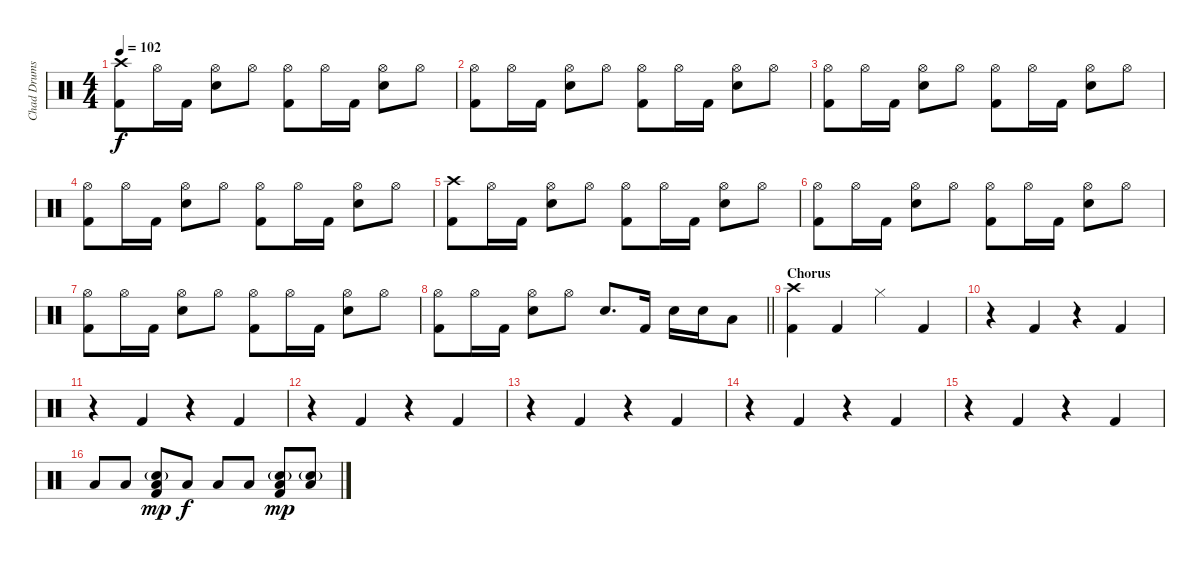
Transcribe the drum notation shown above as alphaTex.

\track ("Chad Drums)" "Chad Drums") {instrument percussion}
\staff {score}
\articulation defaults
\ts (4 4)
\tempo 102
\clef neutral
\ks c
("Crash high (hit)" "Kick (hit) 2").8{dy f} "Hi-Hat (open)".16 "Kick (hit) 2".16 ("Hi-Hat (open)" "Snare (hit) 2").8 "Hi-Hat (open)".8 ("Hi-Hat (open)" "Kick (hit) 2").8 "Hi-Hat (open)".16 "Kick (hit) 2".16 ("Hi-Hat (open)" "Snare (hit) 2").8 "Hi-Hat (open)".8 |
("Hi-Hat (open)" "Kick (hit) 2").8 "Hi-Hat (open)".16 "Kick (hit) 2".16 ("Hi-Hat (open)" "Snare (hit) 2").8 "Hi-Hat (open)".8 ("Hi-Hat (open)" "Kick (hit) 2").8 "Hi-Hat (open)".16 "Kick (hit) 2".16 ("Hi-Hat (open)" "Snare (hit) 2").8 "Hi-Hat (open)".8 |
("Hi-Hat (open)" "Kick (hit) 2").8 "Hi-Hat (open)".16 "Kick (hit) 2".16 ("Hi-Hat (open)" "Snare (hit) 2").8 "Hi-Hat (open)".8 ("Hi-Hat (open)" "Kick (hit) 2").8 "Hi-Hat (open)".16 "Kick (hit) 2".16 ("Hi-Hat (open)" "Snare (hit) 2").8 "Hi-Hat (open)".8 |
("Hi-Hat (open)" "Kick (hit) 2").8 "Hi-Hat (open)".16 "Kick (hit) 2".16 ("Hi-Hat (open)" "Snare (hit) 2").8 "Hi-Hat (open)".8 ("Hi-Hat (open)" "Kick (hit) 2").8 "Hi-Hat (open)".16 "Kick (hit) 2".16 ("Hi-Hat (open)" "Snare (hit) 2").8 "Hi-Hat (open)".8 |
("Crash high (hit)" "Kick (hit) 2").8 "Hi-Hat (open)".16 "Kick (hit) 2".16 ("Hi-Hat (open)" "Snare (hit) 2").8 "Hi-Hat (open)".8 ("Hi-Hat (open)" "Kick (hit) 2").8 "Hi-Hat (open)".16 "Kick (hit) 2".16 ("Hi-Hat (open)" "Snare (hit) 2").8 "Hi-Hat (open)".8 |
("Hi-Hat (open)" "Kick (hit) 2").8 "Hi-Hat (open)".16 "Kick (hit) 2".16 ("Hi-Hat (open)" "Snare (hit) 2").8 "Hi-Hat (open)".8 ("Hi-Hat (open)" "Kick (hit) 2").8 "Hi-Hat (open)".16 "Kick (hit) 2".16 ("Hi-Hat (open)" "Snare (hit) 2").8 "Hi-Hat (open)".8 |
("Hi-Hat (open)" "Kick (hit) 2").8 "Hi-Hat (open)".16 "Kick (hit) 2".16 ("Hi-Hat (open)" "Snare (hit) 2").8 "Hi-Hat (open)".8 ("Hi-Hat (open)" "Kick (hit) 2").8 "Hi-Hat (open)".16 "Kick (hit) 2".16 ("Hi-Hat (open)" "Snare (hit) 2").8 "Hi-Hat (open)".8 |
\barLineRight lightlight
("Hi-Hat (open)" "Kick (hit) 2").8 "Hi-Hat (open)".16 "Kick (hit) 2".16 ("Hi-Hat (open)" "Snare (hit) 2").8 "Hi-Hat (open)".8 "Snare (hit) 2".8{d} "Kick (hit) 2".16 "Snare (hit) 2".16 "Snare (hit) 2".16 "Low Tom (hit)".8 |
\section ("" "Chorus")
("Crash high (hit)" "Kick (hit) 2").4 "Kick (hit) 2".4 "Hi-Hat (closed)".4 "Kick (hit) 2".4 |
r.4 "Kick (hit) 2".4 r.4 "Kick (hit) 2".4 |
r.4 "Kick (hit) 2".4 r.4 "Kick (hit) 2".4 |
r.4 "Kick (hit) 2".4 r.4 "Kick (hit) 2".4 |
r.4 "Kick (hit) 2".4 r.4 "Kick (hit) 2".4 |
r.4 "Kick (hit) 2".4 r.4 "Kick (hit) 2".4 |
r.4 "Kick (hit) 2".4 r.4 "Kick (hit) 2".4 |
"Low Floor Tom (hit)".8 "Low Floor Tom (hit)".8 ("Snare (hit) 2"{g} "Low Floor Tom (hit)" "Kick (hit) 2").8{dy mp} "Low Floor Tom (hit)".8{dy f} "Low Floor Tom (hit)".8 "Low Floor Tom (hit)".8 ("Snare (hit) 2"{g} "Low Floor Tom (hit)" "Kick (hit) 2").8{dy mp} ("Snare (hit) 2"{g} "Low Floor Tom (hit)").8
